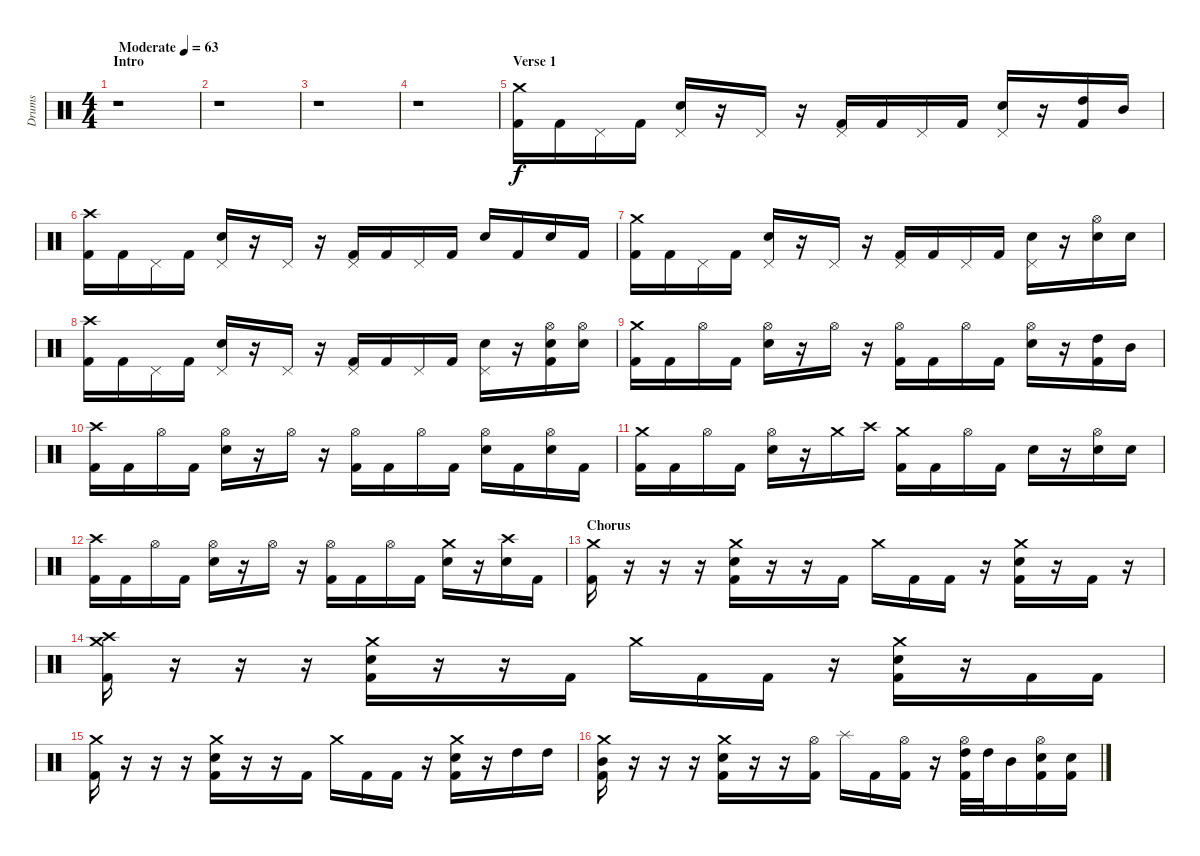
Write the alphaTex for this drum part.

\track ("Drums" "Drums") {instrument percussion}
\staff {score}
\articulation defaults
\ts (4 4)
\section ("" "Intro")
\tempo (63 "Moderate")
\clef neutral
\ks c
r.1{dy f} |
r.1 |
r.1 |
r.1 |
\section ("" "Verse 1")
("Crash medium (hit)" "Kick (hit) 2").16 "Kick (hit) 2".16 "Pedal Hi-Hat (hit)".16 "Kick (hit) 2".16 ("Pedal Hi-Hat (hit)" "Electric Snare (hit)").16 r.16 "Pedal Hi-Hat (hit)".16 r.16 ("Pedal Hi-Hat (hit)" "Kick (hit) 2").16 "Kick (hit) 2".16 "Pedal Hi-Hat (hit)".16 "Kick (hit) 2".16 ("Pedal Hi-Hat (hit)" "Electric Snare (hit)").16 r.16 ("High Tom (hit)" "Kick (hit) 2").16 "Mid Tom (hit)".16 |
("Crash high (hit)" "Kick (hit) 2").16 "Kick (hit) 2".16 "Pedal Hi-Hat (hit)".16 "Kick (hit) 2".16 ("Pedal Hi-Hat (hit)" "Electric Snare (hit)").16 r.16 "Pedal Hi-Hat (hit)".16 r.16 ("Pedal Hi-Hat (hit)" "Kick (hit) 2").16 "Kick (hit) 2".16 "Pedal Hi-Hat (hit)".16 "Kick (hit) 2".16 "Electric Snare (hit)".16 "Kick (hit) 2".16 "Electric Snare (hit)".16 "Kick (hit) 2".16 |
("Crash medium (hit)" "Kick (hit) 2").16 "Kick (hit) 2".16 "Pedal Hi-Hat (hit)".16 "Kick (hit) 2".16 ("Pedal Hi-Hat (hit)" "Electric Snare (hit)").16 r.16 "Pedal Hi-Hat (hit)".16 r.16 ("Pedal Hi-Hat (hit)" "Kick (hit) 2").16 "Kick (hit) 2".16 "Pedal Hi-Hat (hit)".16 "Kick (hit) 2".16 ("Pedal Hi-Hat (hit)" "Electric Snare (hit)").16 r.16 ("Hi-Hat (open)" "Electric Snare (hit)").16 "Electric Snare (hit)".16 |
("Crash high (hit)" "Kick (hit) 2").16 "Kick (hit) 2".16 "Pedal Hi-Hat (hit)".16 "Kick (hit) 2".16 ("Pedal Hi-Hat (hit)" "Electric Snare (hit)").16 r.16 "Pedal Hi-Hat (hit)".16 r.16 ("Pedal Hi-Hat (hit)" "Kick (hit) 2").16 "Kick (hit) 2".16 "Pedal Hi-Hat (hit)".16 "Kick (hit) 2".16 ("Pedal Hi-Hat (hit)" "Electric Snare (hit)").16 r.16 ("Hi-Hat (open)" "Electric Snare (hit)" "Kick (hit) 2").16 ("Hi-Hat (open)" "Electric Snare (hit)").16 |
("Crash medium (hit)" "Kick (hit) 2").16 "Kick (hit) 2".16 "Hi-Hat (open)".16 "Kick (hit) 2".16 ("Hi-Hat (open)" "Electric Snare (hit)").16 r.16 "Hi-Hat (open)".16 r.16 ("Hi-Hat (open)" "Kick (hit) 2").16 "Kick (hit) 2".16 "Hi-Hat (open)".16 "Kick (hit) 2".16 ("Hi-Hat (open)" "Electric Snare (hit)").16 r.16 ("High Tom (hit)" "Kick (hit) 2").16 "Mid Tom (hit)".16 |
("Crash high (hit)" "Kick (hit) 2").16 "Kick (hit) 2".16 "Hi-Hat (open)".16 "Kick (hit) 2".16 ("Hi-Hat (open)" "Electric Snare (hit)").16 r.16 "Hi-Hat (open)".16 r.16 ("Hi-Hat (open)" "Kick (hit) 2").16 "Kick (hit) 2".16 "Hi-Hat (open)".16 "Kick (hit) 2".16 ("Hi-Hat (open)" "Electric Snare (hit)").16 "Kick (hit) 2".16 ("Hi-Hat (open)" "Electric Snare (hit)").16 "Kick (hit) 2".16 |
("Crash medium (hit)" "Kick (hit) 2").16 "Kick (hit) 2".16 "Hi-Hat (open)".16 "Kick (hit) 2".16 ("Hi-Hat (open)" "Electric Snare (hit)").16 r.16 "Crash medium (hit)".16 "Crash high (hit)".16 ("Crash medium (hit)" "Kick (hit) 2").16 "Kick (hit) 2".16 "Hi-Hat (open)".16 "Kick (hit) 2".16 "Electric Snare (hit)".16 r.16 ("Hi-Hat (open)" "Electric Snare (hit)").16 "Electric Snare (hit)".16 |
("Crash high (hit)" "Kick (hit) 2").16 "Kick (hit) 2".16 "Hi-Hat (open)".16 "Kick (hit) 2".16 ("Hi-Hat (open)" "Electric Snare (hit)").16 r.16 "Hi-Hat (open)".16 r.16 ("Hi-Hat (open)" "Kick (hit) 2").16 "Kick (hit) 2".16 "Hi-Hat (open)".16 "Kick (hit) 2".16 ("Crash medium (hit)" "Electric Snare (hit)").16 r.16 ("Crash high (hit)" "Electric Snare (hit)").16 "Kick (hit) 2".16 |
\section ("" "Chorus")
("Crash medium (hit)" "Kick (hit) 2").16 r.16 r.16 r.16 ("Crash medium (hit)" "Electric Snare (hit)" "Kick (hit) 2").16 r.16 r.16 "Kick (hit) 2".16 "Crash medium (hit)".16 "Kick (hit) 2".16 "Kick (hit) 2".16 r.16 ("Crash medium (hit)" "Electric Snare (hit)" "Kick (hit) 2").16 r.16 "Kick (hit) 2".16 r.16 |
("Crash medium (hit)" "Crash high (hit)" "Kick (hit) 2").16 r.16 r.16 r.16 ("Crash medium (hit)" "Electric Snare (hit)" "Kick (hit) 2").16 r.16 r.16 "Kick (hit) 2".16 "Crash medium (hit)".16 "Kick (hit) 2".16 "Kick (hit) 2".16 r.16 ("Crash medium (hit)" "Electric Snare (hit)" "Kick (hit) 2").16 r.16 "Kick (hit) 2".16 "Kick (hit) 2".16 |
("Crash medium (hit)" "Kick (hit) 2").16 r.16 r.16 r.16 ("Crash medium (hit)" "Electric Snare (hit)" "Kick (hit) 2").16 r.16 r.16 "Kick (hit) 2".16 "Crash medium (hit)".16 "Kick (hit) 2".16 "Kick (hit) 2".16 r.16 ("Crash medium (hit)" "Electric Snare (hit)" "Kick (hit) 2").16 r.16 "High Tom (hit)".16 "High Tom (hit)".16 |
("Crash medium (hit)" "Mid Tom (hit)" "Kick (hit) 2").16 r.16 r.16 r.16 ("Crash medium (hit)" "Electric Snare (hit)" "Kick (hit) 2").16 r.16 r.16 ("Hi-Hat (open)" "Kick (hit) 2").16 "Splash (hit)".16 "Kick (hit) 2".16 ("Hi-Hat (open)" "Kick (hit) 2").16 r.16 ("Hi-Hat (open)" "High Tom (hit)" "Kick (hit) 2").32 "High Tom (hit)".32 "Mid Tom (hit)".16 ("Hi-Hat (open)" "Electric Snare (hit)" "Kick (hit) 2").16 ("Electric Snare (hit)" "Kick (hit) 2").16
